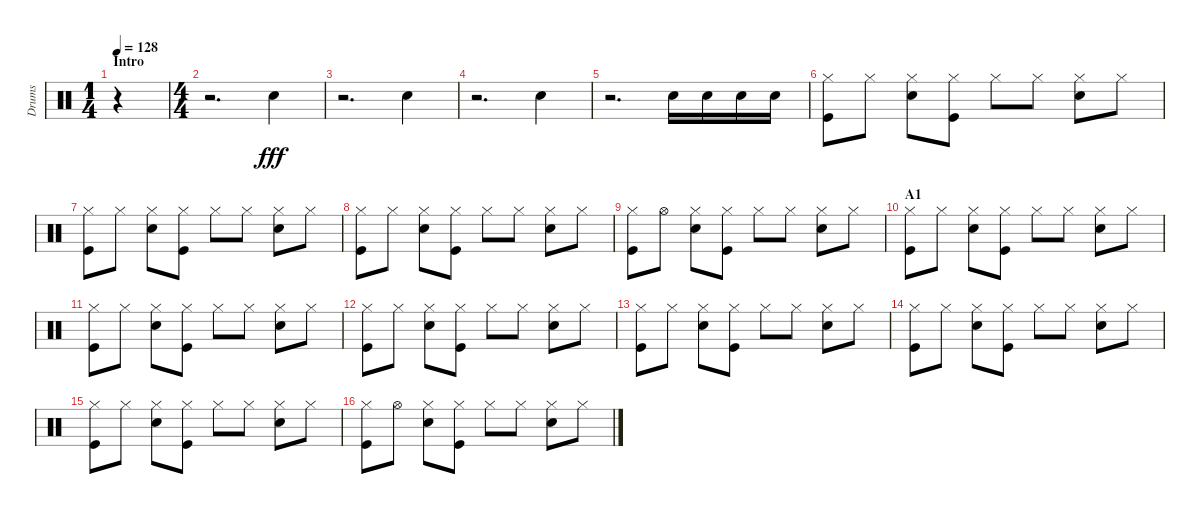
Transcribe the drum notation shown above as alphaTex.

\track ("Drums" "Drums") {instrument percussion}
\staff {score}
\articulation defaults
\ts (1 4)
\section ("" "Intro")
\tempo 128
\clef neutral
\ks c
r.4{dy fff} |
\ts (4 4)
r.2{d} "Snare (hit) 2".4 |
r.2{d} "Snare (hit) 2".4 |
r.2{d} "Snare (hit) 2".4 |
r.2{d} "Snare (hit) 2".16 "Snare (hit) 2".16 "Snare (hit) 2".16 "Snare (hit) 2".16 |
("Hi-Hat (closed)" "Kick (hit)").8 "Hi-Hat (closed)".8 ("Hi-Hat (closed)" "Snare (hit) 2").8 ("Hi-Hat (closed)" "Kick (hit)").8 "Hi-Hat (closed)".8 "Hi-Hat (closed)".8 ("Hi-Hat (closed)" "Snare (hit) 2").8 "Hi-Hat (closed)".8 |
("Hi-Hat (closed)" "Kick (hit)").8 "Hi-Hat (closed)".8 ("Hi-Hat (closed)" "Snare (hit) 2").8 ("Hi-Hat (closed)" "Kick (hit)").8 "Hi-Hat (closed)".8 "Hi-Hat (closed)".8 ("Hi-Hat (closed)" "Snare (hit) 2").8 "Hi-Hat (closed)".8 |
("Hi-Hat (closed)" "Kick (hit)").8 "Hi-Hat (closed)".8 ("Hi-Hat (closed)" "Snare (hit) 2").8 ("Hi-Hat (closed)" "Kick (hit)").8 "Hi-Hat (closed)".8 "Hi-Hat (closed)".8 ("Hi-Hat (closed)" "Snare (hit) 2").8 "Hi-Hat (closed)".8 |
("Hi-Hat (closed)" "Kick (hit)").8 "Hi-Hat (open)".8 ("Hi-Hat (closed)" "Snare (hit) 2").8 ("Hi-Hat (closed)" "Kick (hit)").8 "Hi-Hat (closed)".8 "Hi-Hat (closed)".8 ("Hi-Hat (closed)" "Snare (hit) 2").8 "Hi-Hat (closed)".8 |
\section ("" "A1")
("Hi-Hat (closed)" "Kick (hit)").8 "Hi-Hat (closed)".8 ("Hi-Hat (closed)" "Snare (hit) 2").8 ("Hi-Hat (closed)" "Kick (hit)").8 "Hi-Hat (closed)".8 "Hi-Hat (closed)".8 ("Hi-Hat (closed)" "Snare (hit) 2").8 "Hi-Hat (closed)".8 |
("Hi-Hat (closed)" "Kick (hit)").8 "Hi-Hat (closed)".8 ("Hi-Hat (closed)" "Snare (hit) 2").8 ("Hi-Hat (closed)" "Kick (hit)").8 "Hi-Hat (closed)".8 "Hi-Hat (closed)".8 ("Hi-Hat (closed)" "Snare (hit) 2").8 "Hi-Hat (closed)".8 |
("Hi-Hat (closed)" "Kick (hit)").8 "Hi-Hat (closed)".8 ("Hi-Hat (closed)" "Snare (hit) 2").8 ("Hi-Hat (closed)" "Kick (hit)").8 "Hi-Hat (closed)".8 "Hi-Hat (closed)".8 ("Hi-Hat (closed)" "Snare (hit) 2").8 "Hi-Hat (closed)".8 |
("Hi-Hat (closed)" "Kick (hit)").8 "Hi-Hat (closed)".8 ("Hi-Hat (closed)" "Snare (hit) 2").8 ("Hi-Hat (closed)" "Kick (hit)").8 "Hi-Hat (closed)".8 "Hi-Hat (closed)".8 ("Hi-Hat (closed)" "Snare (hit) 2").8 "Hi-Hat (closed)".8 |
("Hi-Hat (closed)" "Kick (hit)").8 "Hi-Hat (closed)".8 ("Hi-Hat (closed)" "Snare (hit) 2").8 ("Hi-Hat (closed)" "Kick (hit)").8 "Hi-Hat (closed)".8 "Hi-Hat (closed)".8 ("Hi-Hat (closed)" "Snare (hit) 2").8 "Hi-Hat (closed)".8 |
("Hi-Hat (closed)" "Kick (hit)").8 "Hi-Hat (closed)".8 ("Hi-Hat (closed)" "Snare (hit) 2").8 ("Hi-Hat (closed)" "Kick (hit)").8 "Hi-Hat (closed)".8 "Hi-Hat (closed)".8 ("Hi-Hat (closed)" "Snare (hit) 2").8 "Hi-Hat (closed)".8 |
("Hi-Hat (closed)" "Kick (hit)").8 "Hi-Hat (open)".8 ("Hi-Hat (closed)" "Snare (hit) 2").8 ("Hi-Hat (closed)" "Kick (hit)").8 "Hi-Hat (closed)".8 "Hi-Hat (closed)".8 ("Hi-Hat (closed)" "Snare (hit) 2").8 "Hi-Hat (closed)".8
